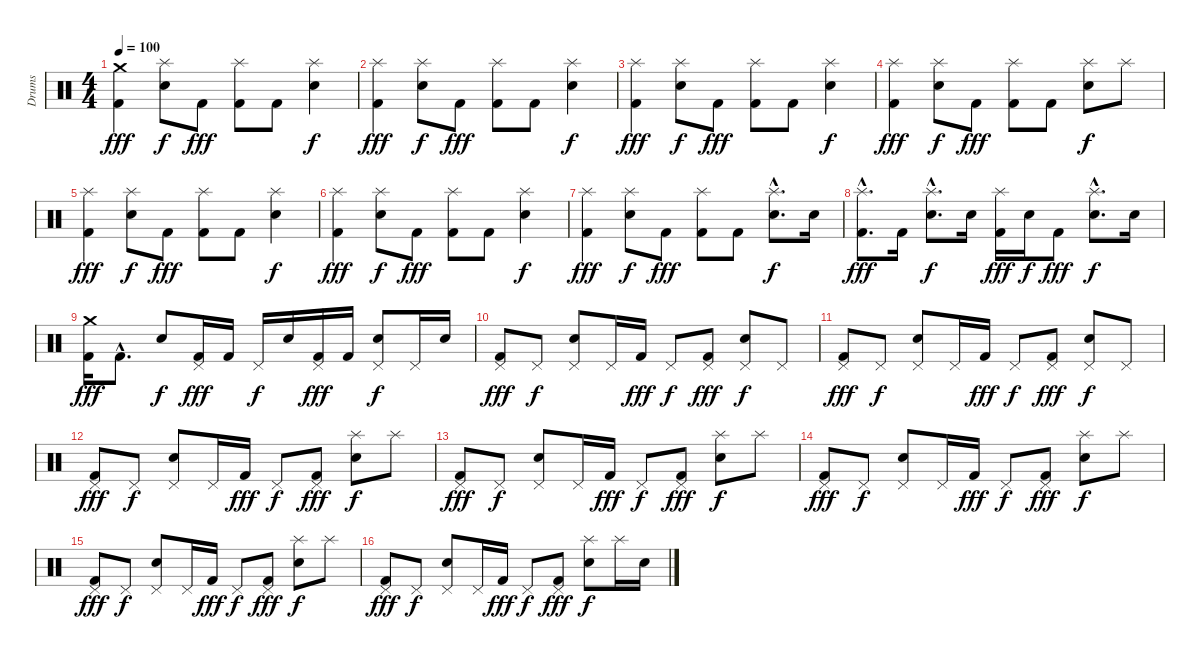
\track ("Drums" "Drums") {instrument percussion}
\staff {score}
\articulation defaults
\ts (4 4)
\tempo 100
\clef neutral
\ks c
("Crash medium (hit)" "Kick (hit) 2").4{dy fff} ("Splash (hit)" "Electric Snare (hit)").8{dy f} "Kick (hit) 2".8{dy fff} ("Splash (hit)" "Kick (hit) 2").8 "Kick (hit) 2".8 ("Splash (hit)" "Electric Snare (hit)").4{dy f} |
("Splash (hit)" "Kick (hit) 2").4{dy fff} ("Splash (hit)" "Electric Snare (hit)").8{dy f} "Kick (hit) 2".8{dy fff} ("Splash (hit)" "Kick (hit) 2").8 "Kick (hit) 2".8 ("Splash (hit)" "Electric Snare (hit)").4{dy f} |
("Splash (hit)" "Kick (hit) 2").4{dy fff} ("Splash (hit)" "Electric Snare (hit)").8{dy f} "Kick (hit) 2".8{dy fff} ("Splash (hit)" "Kick (hit) 2").8 "Kick (hit) 2".8 ("Splash (hit)" "Electric Snare (hit)").4{dy f} |
("Splash (hit)" "Kick (hit) 2").4{dy fff} ("Splash (hit)" "Electric Snare (hit)").8{dy f} "Kick (hit) 2".8{dy fff} ("Splash (hit)" "Kick (hit) 2").8 "Kick (hit) 2".8 ("Splash (hit)" "Electric Snare (hit)").8{dy f} "Splash (hit)".8 |
("Splash (hit)" "Kick (hit) 2").4{dy fff} ("Splash (hit)" "Electric Snare (hit)").8{dy f} "Kick (hit) 2".8{dy fff} ("Splash (hit)" "Kick (hit) 2").8 "Kick (hit) 2".8 ("Splash (hit)" "Electric Snare (hit)").4{dy f} |
("Splash (hit)" "Kick (hit) 2").4{dy fff} ("Splash (hit)" "Electric Snare (hit)").8{dy f} "Kick (hit) 2".8{dy fff} ("Splash (hit)" "Kick (hit) 2").8 "Kick (hit) 2".8 ("Splash (hit)" "Electric Snare (hit)").4{dy f} |
("Splash (hit)" "Kick (hit) 2").4{dy fff} ("Splash (hit)" "Electric Snare (hit)").8{dy f} "Kick (hit) 2".8{dy fff} ("Splash (hit)" "Kick (hit) 2").8 "Kick (hit) 2".8 ("Splash (hit)"{hac} "Electric Snare (hit)"{hac}).8{d dy f} "Electric Snare (hit)".16 |
("Splash (hit)"{hac} "Kick (hit) 2"{hac}).8{d dy fff} "Kick (hit) 2".16 ("Splash (hit)"{hac} "Electric Snare (hit)"{hac}).8{d dy f} "Electric Snare (hit)".16 ("Splash (hit)" "Kick (hit) 2").16{dy fff} "Electric Snare (hit)".16{dy f} "Kick (hit) 2".8{dy fff} ("Splash (hit)"{hac} "Electric Snare (hit)"{hac}).8{d dy f} "Electric Snare (hit)".16 |
("Crash medium (hit)" "Kick (hit) 2").16{dy fff} "Kick (hit) 2"{hac}.8{d} "Electric Snare (hit)".8{dy f} ("Pedal Hi-Hat (hit)" "Kick (hit) 2").16{dy fff} "Kick (hit) 2".16 "Pedal Hi-Hat (hit)".16{dy f} "Electric Snare (hit)".16 ("Pedal Hi-Hat (hit)" "Kick (hit) 2").16{dy fff} "Kick (hit) 2".16 ("Pedal Hi-Hat (hit)" "Electric Snare (hit)").8{dy f} "Pedal Hi-Hat (hit)".16 "Electric Snare (hit)".16 |
("Pedal Hi-Hat (hit)" "Kick (hit) 2").8{dy fff} "Pedal Hi-Hat (hit)".8{dy f} ("Pedal Hi-Hat (hit)" "Electric Snare (hit)").8 "Pedal Hi-Hat (hit)".16 "Kick (hit) 2".16{dy fff} "Pedal Hi-Hat (hit)".8{dy f} ("Pedal Hi-Hat (hit)" "Kick (hit) 2").8{dy fff} ("Pedal Hi-Hat (hit)" "Electric Snare (hit)").8{dy f} "Pedal Hi-Hat (hit)".8 |
("Pedal Hi-Hat (hit)" "Kick (hit) 2").8{dy fff} "Pedal Hi-Hat (hit)".8{dy f} ("Pedal Hi-Hat (hit)" "Electric Snare (hit)").8 "Pedal Hi-Hat (hit)".16 "Kick (hit) 2".16{dy fff} "Pedal Hi-Hat (hit)".8{dy f} ("Pedal Hi-Hat (hit)" "Kick (hit) 2").8{dy fff} ("Pedal Hi-Hat (hit)" "Electric Snare (hit)").8{dy f} "Pedal Hi-Hat (hit)".8 |
("Pedal Hi-Hat (hit)" "Kick (hit) 2").8{dy fff} "Pedal Hi-Hat (hit)".8{dy f} ("Pedal Hi-Hat (hit)" "Electric Snare (hit)").8 "Pedal Hi-Hat (hit)".16 "Kick (hit) 2".16{dy fff} "Pedal Hi-Hat (hit)".8{dy f} ("Pedal Hi-Hat (hit)" "Kick (hit) 2").8{dy fff} ("Splash (hit)" "Electric Snare (hit)").8{dy f} "Splash (hit)".8 |
("Pedal Hi-Hat (hit)" "Kick (hit) 2").8{dy fff} "Pedal Hi-Hat (hit)".8{dy f} ("Pedal Hi-Hat (hit)" "Electric Snare (hit)").8 "Pedal Hi-Hat (hit)".16 "Kick (hit) 2".16{dy fff} "Pedal Hi-Hat (hit)".8{dy f} ("Pedal Hi-Hat (hit)" "Kick (hit) 2").8{dy fff} ("Splash (hit)" "Electric Snare (hit)").8{dy f} "Splash (hit)".8 |
("Pedal Hi-Hat (hit)" "Kick (hit) 2").8{dy fff} "Pedal Hi-Hat (hit)".8{dy f} ("Pedal Hi-Hat (hit)" "Electric Snare (hit)").8 "Pedal Hi-Hat (hit)".16 "Kick (hit) 2".16{dy fff} "Pedal Hi-Hat (hit)".8{dy f} ("Pedal Hi-Hat (hit)" "Kick (hit) 2").8{dy fff} ("Splash (hit)" "Electric Snare (hit)").8{dy f} "Splash (hit)".8 |
("Pedal Hi-Hat (hit)" "Kick (hit) 2").8{dy fff} "Pedal Hi-Hat (hit)".8{dy f} ("Pedal Hi-Hat (hit)" "Electric Snare (hit)").8 "Pedal Hi-Hat (hit)".16 "Kick (hit) 2".16{dy fff} "Pedal Hi-Hat (hit)".8{dy f} ("Pedal Hi-Hat (hit)" "Kick (hit) 2").8{dy fff} ("Splash (hit)" "Electric Snare (hit)").8{dy f} "Splash (hit)".8 |
("Pedal Hi-Hat (hit)" "Kick (hit) 2").8{dy fff} "Pedal Hi-Hat (hit)".8{dy f} ("Pedal Hi-Hat (hit)" "Electric Snare (hit)").8 "Pedal Hi-Hat (hit)".16 "Kick (hit) 2".16{dy fff} "Pedal Hi-Hat (hit)".8{dy f} ("Pedal Hi-Hat (hit)" "Kick (hit) 2").8{dy fff} ("Splash (hit)" "Electric Snare (hit)").8{dy f} "Splash (hit)".16 "Electric Snare (hit)".16
